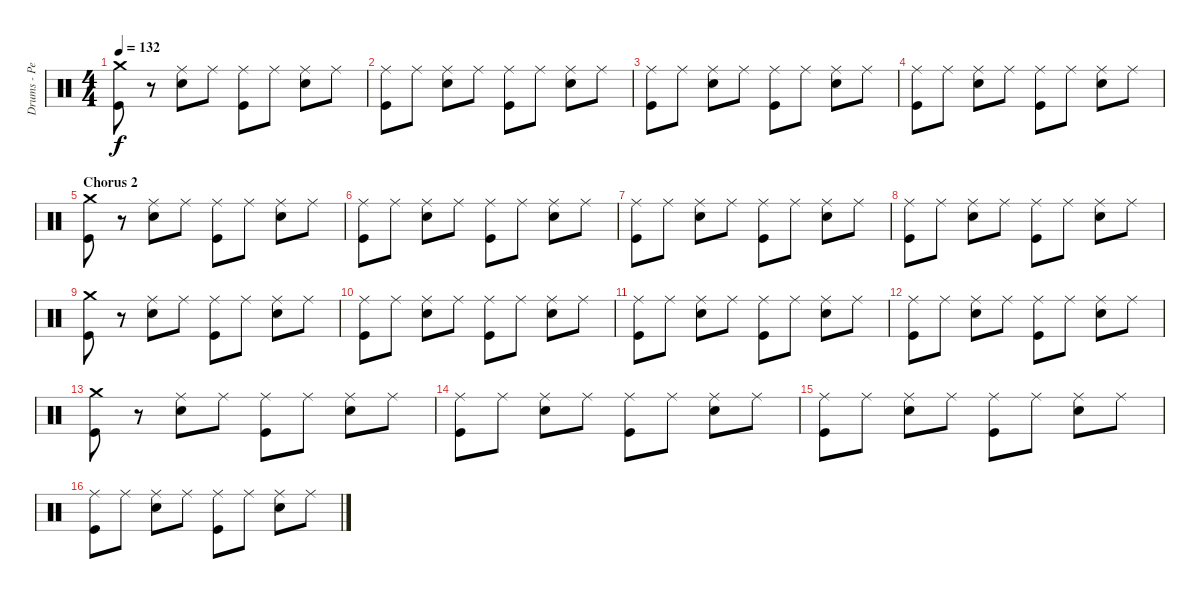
\track ("Drums - Pete Gill" "Drums - Pe") {instrument percussion}
\staff {score}
\articulation defaults
\ts (4 4)
\tempo 132
\clef neutral
\ks c
("Crash medium (hit)" "Kick (hit)").8{dy f} r.8 ("Ride (middle)" "Snare (hit) 2").8 "Ride (middle)".8 ("Ride (middle)" "Kick (hit)").8 "Ride (middle)".8 ("Ride (middle)" "Snare (hit) 2").8 "Ride (middle)".8 |
("Ride (middle)" "Kick (hit)").8 "Ride (middle)".8 ("Ride (middle)" "Snare (hit) 2").8 "Ride (middle)".8 ("Ride (middle)" "Kick (hit)").8 "Ride (middle)".8 ("Ride (middle)" "Snare (hit) 2").8 "Ride (middle)".8 |
("Ride (middle)" "Kick (hit)").8 "Ride (middle)".8 ("Ride (middle)" "Snare (hit) 2").8 "Ride (middle)".8 ("Ride (middle)" "Kick (hit)").8 "Ride (middle)".8 ("Ride (middle)" "Snare (hit) 2").8 "Ride (middle)".8 |
("Ride (middle)" "Kick (hit)").8 "Ride (middle)".8 ("Ride (middle)" "Snare (hit) 2").8 "Ride (middle)".8 ("Ride (middle)" "Kick (hit)").8 "Ride (middle)".8 ("Ride (middle)" "Snare (hit) 2").8 "Ride (middle)".8 |
\section ("" "Chorus 2")
("Crash medium (hit)" "Kick (hit)").8 r.8 ("Ride (middle)" "Snare (hit) 2").8 "Ride (middle)".8 ("Ride (middle)" "Kick (hit)").8 "Ride (middle)".8 ("Ride (middle)" "Snare (hit) 2").8 "Ride (middle)".8 |
("Ride (middle)" "Kick (hit)").8 "Ride (middle)".8 ("Ride (middle)" "Snare (hit) 2").8 "Ride (middle)".8 ("Ride (middle)" "Kick (hit)").8 "Ride (middle)".8 ("Ride (middle)" "Snare (hit) 2").8 "Ride (middle)".8 |
("Ride (middle)" "Kick (hit)").8 "Ride (middle)".8 ("Ride (middle)" "Snare (hit) 2").8 "Ride (middle)".8 ("Ride (middle)" "Kick (hit)").8 "Ride (middle)".8 ("Ride (middle)" "Snare (hit) 2").8 "Ride (middle)".8 |
("Ride (middle)" "Kick (hit)").8 "Ride (middle)".8 ("Ride (middle)" "Snare (hit) 2").8 "Ride (middle)".8 ("Ride (middle)" "Kick (hit)").8 "Ride (middle)".8 ("Ride (middle)" "Snare (hit) 2").8 "Ride (middle)".8 |
("Crash medium (hit)" "Kick (hit)").8 r.8 ("Ride (middle)" "Snare (hit) 2").8 "Ride (middle)".8 ("Ride (middle)" "Kick (hit)").8 "Ride (middle)".8 ("Ride (middle)" "Snare (hit) 2").8 "Ride (middle)".8 |
("Ride (middle)" "Kick (hit)").8 "Ride (middle)".8 ("Ride (middle)" "Snare (hit) 2").8 "Ride (middle)".8 ("Ride (middle)" "Kick (hit)").8 "Ride (middle)".8 ("Ride (middle)" "Snare (hit) 2").8 "Ride (middle)".8 |
("Ride (middle)" "Kick (hit)").8 "Ride (middle)".8 ("Ride (middle)" "Snare (hit) 2").8 "Ride (middle)".8 ("Ride (middle)" "Kick (hit)").8 "Ride (middle)".8 ("Ride (middle)" "Snare (hit) 2").8 "Ride (middle)".8 |
("Ride (middle)" "Kick (hit)").8 "Ride (middle)".8 ("Ride (middle)" "Snare (hit) 2").8 "Ride (middle)".8 ("Ride (middle)" "Kick (hit)").8 "Ride (middle)".8 ("Ride (middle)" "Snare (hit) 2").8 "Ride (middle)".8 |
("Crash medium (hit)" "Kick (hit)").8 r.8 ("Ride (middle)" "Snare (hit) 2").8 "Ride (middle)".8 ("Ride (middle)" "Kick (hit)").8 "Ride (middle)".8 ("Ride (middle)" "Snare (hit) 2").8 "Ride (middle)".8 |
("Ride (middle)" "Kick (hit)").8 "Ride (middle)".8 ("Ride (middle)" "Snare (hit) 2").8 "Ride (middle)".8 ("Ride (middle)" "Kick (hit)").8 "Ride (middle)".8 ("Ride (middle)" "Snare (hit) 2").8 "Ride (middle)".8 |
("Ride (middle)" "Kick (hit)").8 "Ride (middle)".8 ("Ride (middle)" "Snare (hit) 2").8 "Ride (middle)".8 ("Ride (middle)" "Kick (hit)").8 "Ride (middle)".8 ("Ride (middle)" "Snare (hit) 2").8 "Ride (middle)".8 |
("Ride (middle)" "Kick (hit)").8 "Ride (middle)".8 ("Ride (middle)" "Snare (hit) 2").8 "Ride (middle)".8 ("Ride (middle)" "Kick (hit)").8 "Ride (middle)".8 ("Ride (middle)" "Snare (hit) 2").8 "Ride (middle)".8
